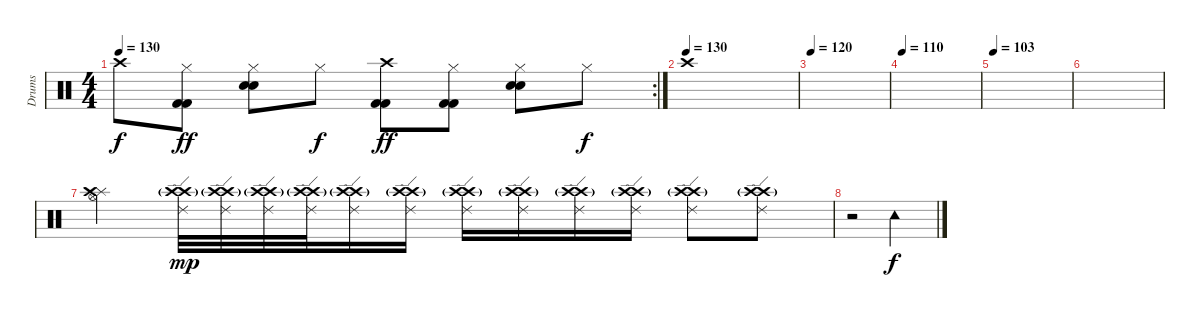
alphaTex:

\track ("Drums" "Drums") {instrument percussion}
\staff {score}
\articulation defaults
\rc 2
\ts (4 4)
\tempo 130
\clef neutral
\ks c "Crash high (hit)".8{dy f}
("Kick (hit) 2" "Kick (hit) 2" "Hi-Hat (closed)").8{dy ff} ("Electric Snare (hit)" "Electric Snare (hit)" "Hi-Hat (closed)").8 "Hi-Hat (closed)".8{dy f} ("Kick (hit) 2" "Kick (hit) 2" "Crash high (hit)").8{dy ff} ("Kick (hit) 2" "Kick (hit) 2" "Hi-Hat (closed)").8 ("Electric Snare (hit)" "Electric Snare (hit)" "Hi-Hat (closed)").8 "Hi-Hat (closed)".8{dy f} |
\tempo (130)
"Crash high (hit)".1 |
\tempo 120
|
\tempo 110
|
\tempo 103
|
|
("Hi-Hat (open)" "Splash (hit)" "Crash high (hit)").4 ("Crash high (hit)"{g} "Crash high (hit)"{g} "Ride (edge) 2").32{dy mp} ("Crash high (hit)"{g} "Crash high (hit)"{g} "Ride (edge) 2").32 ("Crash high (hit)"{g} "Crash high (hit)"{g} "Ride (edge) 2").32 ("Crash high (hit)"{g} "Crash high (hit)"{g} "Ride (edge) 2").32 ("Crash high (hit)"{g} "Crash high (hit)"{g} "Ride (edge) 2").16 ("Crash high (hit)"{g} "Crash high (hit)"{g} "Ride (edge) 2").16 ("Crash high (hit)"{g} "Crash high (hit)"{g} "Ride (edge) 2").16 ("Crash high (hit)"{g} "Crash high (hit)"{g} "Ride (edge) 2").16 ("Crash high (hit)"{g} "Crash high (hit)"{g} "Ride (edge) 2").16 ("Crash high (hit)"{g} "Crash high (hit)"{g} "Ride (edge) 2").16 ("Crash high (hit)"{g} "Crash high (hit)"{g} "Ride (edge) 2").8 ("Crash high (hit)"{g} "Crash high (hit)"{g} "Ride (edge) 2").8 |
r.2 "Tambourine (hit)".2{dy f}
